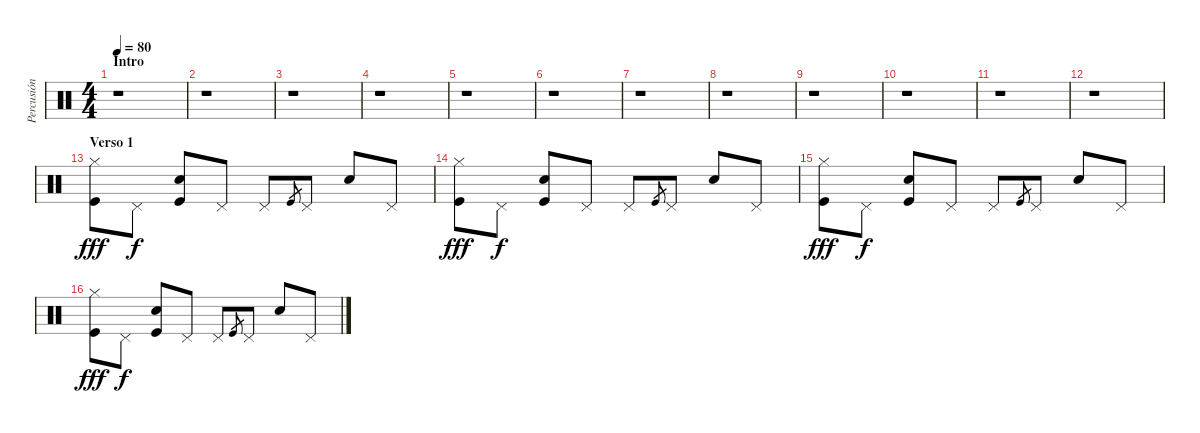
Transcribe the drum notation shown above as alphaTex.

\track ("Percusión (Percussion)" "Percusión ") {instrument percussion}
\staff {score}
\articulation defaults
\ts (4 4)
\section ("" "Intro")
\tempo 80
\clef neutral
\ks c
r.1{dy fff} |
r.1 |
r.1 |
r.1 |
r.1 |
r.1 |
r.1 |
r.1 |
r.1 |
r.1 |
r.1 |
r.1 |
\section ("" "Verso 1")
("Kick (hit)" "Hi-Hat (closed)").8 "Pedal Hi-Hat (hit)".8{dy f} ("Snare (hit) 2" "Kick (hit)").8 "Pedal Hi-Hat (hit)".8 "Pedal Hi-Hat (hit)".8 "Kick (hit)".8{gr} "Pedal Hi-Hat (hit)".8 "Snare (hit) 2".8 "Pedal Hi-Hat (hit)".8 |
("Kick (hit)" "Hi-Hat (closed)").8{dy fff} "Pedal Hi-Hat (hit)".8{dy f} ("Snare (hit) 2" "Kick (hit)").8 "Pedal Hi-Hat (hit)".8 "Pedal Hi-Hat (hit)".8 "Kick (hit)".8{gr} "Pedal Hi-Hat (hit)".8 "Snare (hit) 2".8 "Pedal Hi-Hat (hit)".8 |
("Kick (hit)" "Hi-Hat (closed)").8{dy fff} "Pedal Hi-Hat (hit)".8{dy f} ("Snare (hit) 2" "Kick (hit)").8 "Pedal Hi-Hat (hit)".8 "Pedal Hi-Hat (hit)".8 "Kick (hit)".8{gr} "Pedal Hi-Hat (hit)".8 "Snare (hit) 2".8 "Pedal Hi-Hat (hit)".8 |
("Kick (hit)" "Hi-Hat (closed)").8{dy fff} "Pedal Hi-Hat (hit)".8{dy f} ("Snare (hit) 2" "Kick (hit)").8 "Pedal Hi-Hat (hit)".8 "Pedal Hi-Hat (hit)".8 "Kick (hit)".8{gr} "Pedal Hi-Hat (hit)".8 "Snare (hit) 2".8 "Pedal Hi-Hat (hit)".8
